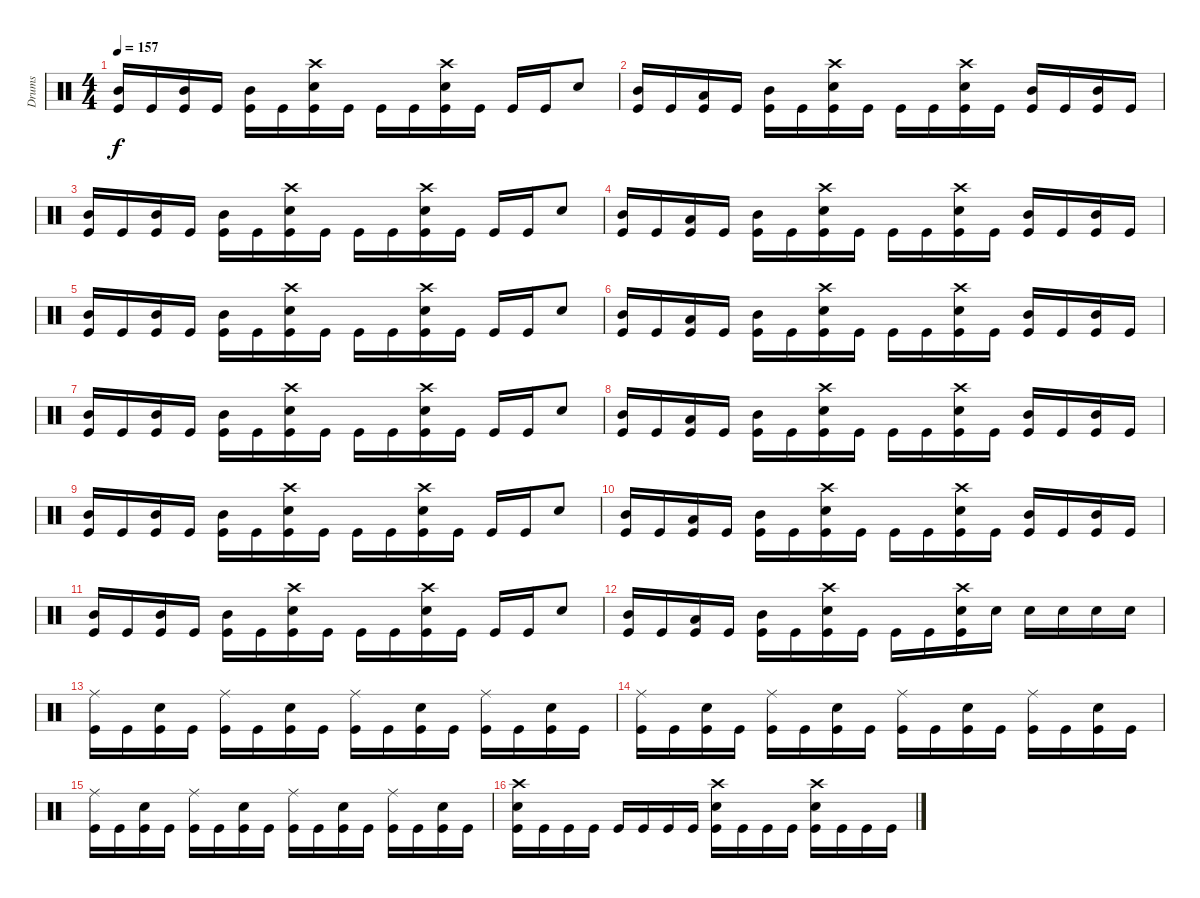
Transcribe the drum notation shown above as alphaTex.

\track ("Drums" "Drums") {instrument percussion}
\staff {score}
\articulation defaults
\ts (4 4)
\tempo 157
\clef neutral
\ks c
("Mid Tom (hit)" "Kick (hit)").16{dy f} "Kick (hit)".16 ("Mid Tom (hit)" "Kick (hit)").16 "Kick (hit)".16 ("Mid Tom (hit)" "Kick (hit)").16 "Kick (hit)".16 ("Snare (hit) 2" "Crash high (hit)" "Kick (hit)").16 "Kick (hit)".16 "Kick (hit)".16 "Kick (hit)".16 ("Snare (hit) 2" "Crash high (hit)" "Kick (hit)").16 "Kick (hit)".16 "Kick (hit)".16 "Kick (hit)".16 "Snare (hit) 2".8 |
("Mid Tom (hit)" "Kick (hit)").16 "Kick (hit)".16 ("Low Tom (hit)" "Kick (hit)").16 "Kick (hit)".16 ("Mid Tom (hit)" "Kick (hit)").16 "Kick (hit)".16 ("Snare (hit) 2" "Crash high (hit)" "Kick (hit)").16 "Kick (hit)".16 "Kick (hit)".16 "Kick (hit)".16 ("Snare (hit) 2" "Crash high (hit)" "Kick (hit)").16 "Kick (hit)".16 ("Mid Tom (hit)" "Kick (hit)").16 "Kick (hit)".16 ("Mid Tom (hit)" "Kick (hit)").16 "Kick (hit)".16 |
("Mid Tom (hit)" "Kick (hit)").16 "Kick (hit)".16 ("Mid Tom (hit)" "Kick (hit)").16 "Kick (hit)".16 ("Mid Tom (hit)" "Kick (hit)").16 "Kick (hit)".16 ("Snare (hit) 2" "Crash high (hit)" "Kick (hit)").16 "Kick (hit)".16 "Kick (hit)".16 "Kick (hit)".16 ("Snare (hit) 2" "Crash high (hit)" "Kick (hit)").16 "Kick (hit)".16 "Kick (hit)".16 "Kick (hit)".16 "Snare (hit) 2".8 |
("Mid Tom (hit)" "Kick (hit)").16 "Kick (hit)".16 ("Low Tom (hit)" "Kick (hit)").16 "Kick (hit)".16 ("Mid Tom (hit)" "Kick (hit)").16 "Kick (hit)".16 ("Snare (hit) 2" "Crash high (hit)" "Kick (hit)").16 "Kick (hit)".16 "Kick (hit)".16 "Kick (hit)".16 ("Snare (hit) 2" "Crash high (hit)" "Kick (hit)").16 "Kick (hit)".16 ("Mid Tom (hit)" "Kick (hit)").16 "Kick (hit)".16 ("Mid Tom (hit)" "Kick (hit)").16 "Kick (hit)".16 |
("Mid Tom (hit)" "Kick (hit)").16 "Kick (hit)".16 ("Mid Tom (hit)" "Kick (hit)").16 "Kick (hit)".16 ("Mid Tom (hit)" "Kick (hit)").16 "Kick (hit)".16 ("Snare (hit) 2" "Crash high (hit)" "Kick (hit)").16 "Kick (hit)".16 "Kick (hit)".16 "Kick (hit)".16 ("Snare (hit) 2" "Crash high (hit)" "Kick (hit)").16 "Kick (hit)".16 "Kick (hit)".16 "Kick (hit)".16 "Snare (hit) 2".8 |
("Mid Tom (hit)" "Kick (hit)").16 "Kick (hit)".16 ("Low Tom (hit)" "Kick (hit)").16 "Kick (hit)".16 ("Mid Tom (hit)" "Kick (hit)").16 "Kick (hit)".16 ("Snare (hit) 2" "Crash high (hit)" "Kick (hit)").16 "Kick (hit)".16 "Kick (hit)".16 "Kick (hit)".16 ("Snare (hit) 2" "Crash high (hit)" "Kick (hit)").16 "Kick (hit)".16 ("Mid Tom (hit)" "Kick (hit)").16 "Kick (hit)".16 ("Mid Tom (hit)" "Kick (hit)").16 "Kick (hit)".16 |
("Mid Tom (hit)" "Kick (hit)").16 "Kick (hit)".16 ("Mid Tom (hit)" "Kick (hit)").16 "Kick (hit)".16 ("Mid Tom (hit)" "Kick (hit)").16 "Kick (hit)".16 ("Snare (hit) 2" "Crash high (hit)" "Kick (hit)").16 "Kick (hit)".16 "Kick (hit)".16 "Kick (hit)".16 ("Snare (hit) 2" "Crash high (hit)" "Kick (hit)").16 "Kick (hit)".16 "Kick (hit)".16 "Kick (hit)".16 "Snare (hit) 2".8 |
("Mid Tom (hit)" "Kick (hit)").16 "Kick (hit)".16 ("Low Tom (hit)" "Kick (hit)").16 "Kick (hit)".16 ("Mid Tom (hit)" "Kick (hit)").16 "Kick (hit)".16 ("Snare (hit) 2" "Crash high (hit)" "Kick (hit)").16 "Kick (hit)".16 "Kick (hit)".16 "Kick (hit)".16 ("Snare (hit) 2" "Crash high (hit)" "Kick (hit)").16 "Kick (hit)".16 ("Mid Tom (hit)" "Kick (hit)").16 "Kick (hit)".16 ("Mid Tom (hit)" "Kick (hit)").16 "Kick (hit)".16 |
("Mid Tom (hit)" "Kick (hit)").16 "Kick (hit)".16 ("Mid Tom (hit)" "Kick (hit)").16 "Kick (hit)".16 ("Mid Tom (hit)" "Kick (hit)").16 "Kick (hit)".16 ("Snare (hit) 2" "Crash high (hit)" "Kick (hit)").16 "Kick (hit)".16 "Kick (hit)".16 "Kick (hit)".16 ("Snare (hit) 2" "Crash high (hit)" "Kick (hit)").16 "Kick (hit)".16 "Kick (hit)".16 "Kick (hit)".16 "Snare (hit) 2".8 |
("Mid Tom (hit)" "Kick (hit)").16 "Kick (hit)".16 ("Low Tom (hit)" "Kick (hit)").16 "Kick (hit)".16 ("Mid Tom (hit)" "Kick (hit)").16 "Kick (hit)".16 ("Snare (hit) 2" "Crash high (hit)" "Kick (hit)").16 "Kick (hit)".16 "Kick (hit)".16 "Kick (hit)".16 ("Snare (hit) 2" "Crash high (hit)" "Kick (hit)").16 "Kick (hit)".16 ("Mid Tom (hit)" "Kick (hit)").16 "Kick (hit)".16 ("Mid Tom (hit)" "Kick (hit)").16 "Kick (hit)".16 |
("Mid Tom (hit)" "Kick (hit)").16 "Kick (hit)".16 ("Mid Tom (hit)" "Kick (hit)").16 "Kick (hit)".16 ("Mid Tom (hit)" "Kick (hit)").16 "Kick (hit)".16 ("Snare (hit) 2" "Crash high (hit)" "Kick (hit)").16 "Kick (hit)".16 "Kick (hit)".16 "Kick (hit)".16 ("Snare (hit) 2" "Crash high (hit)" "Kick (hit)").16 "Kick (hit)".16 "Kick (hit)".16 "Kick (hit)".16 "Snare (hit) 2".8 |
("Mid Tom (hit)" "Kick (hit)").16 "Kick (hit)".16 ("Low Tom (hit)" "Kick (hit)").16 "Kick (hit)".16 ("Mid Tom (hit)" "Kick (hit)").16 "Kick (hit)".16 ("Snare (hit) 2" "Crash high (hit)" "Kick (hit)").16 "Kick (hit)".16 "Kick (hit)".16 "Kick (hit)".16 ("Snare (hit) 2" "Crash high (hit)" "Kick (hit)").16 "Snare (hit) 2".16 "Snare (hit) 2".16 "Snare (hit) 2".16 "Snare (hit) 2".16 "Snare (hit) 2".16 |
("Ride (middle)" "Kick (hit)").16 "Kick (hit)".16 ("Snare (hit) 2" "Kick (hit)").16 "Kick (hit)".16 ("Ride (middle)" "Kick (hit)").16 "Kick (hit)".16 ("Snare (hit) 2" "Kick (hit)").16 "Kick (hit)".16 ("Ride (middle)" "Kick (hit)").16 "Kick (hit)".16 ("Snare (hit) 2" "Kick (hit)").16 "Kick (hit)".16 ("Ride (middle)" "Kick (hit)").16 "Kick (hit)".16 ("Snare (hit) 2" "Kick (hit)").16 "Kick (hit)".16 |
("Ride (middle)" "Kick (hit)").16 "Kick (hit)".16 ("Snare (hit) 2" "Kick (hit)").16 "Kick (hit)".16 ("Ride (middle)" "Kick (hit)").16 "Kick (hit)".16 ("Snare (hit) 2" "Kick (hit)").16 "Kick (hit)".16 ("Ride (middle)" "Kick (hit)").16 "Kick (hit)".16 ("Snare (hit) 2" "Kick (hit)").16 "Kick (hit)".16 ("Ride (middle)" "Kick (hit)").16 "Kick (hit)".16 ("Snare (hit) 2" "Kick (hit)").16 "Kick (hit)".16 |
("Ride (middle)" "Kick (hit)").16 "Kick (hit)".16 ("Snare (hit) 2" "Kick (hit)").16 "Kick (hit)".16 ("Ride (middle)" "Kick (hit)").16 "Kick (hit)".16 ("Snare (hit) 2" "Kick (hit)").16 "Kick (hit)".16 ("Ride (middle)" "Kick (hit)").16 "Kick (hit)".16 ("Snare (hit) 2" "Kick (hit)").16 "Kick (hit)".16 ("Ride (middle)" "Kick (hit)").16 "Kick (hit)".16 ("Snare (hit) 2" "Kick (hit)").16 "Kick (hit)".16 |
("Snare (hit) 2" "Crash high (hit)" "Kick (hit)").16 "Kick (hit)".16 "Kick (hit)".16 "Kick (hit)".16 "Kick (hit)".16 "Kick (hit)".16 "Kick (hit)".16 "Kick (hit)".16 ("Snare (hit) 2" "Crash high (hit)" "Kick (hit)").16 "Kick (hit)".16 "Kick (hit)".16 "Kick (hit)".16 ("Snare (hit) 2" "Crash high (hit)" "Kick (hit)").16 "Kick (hit)".16 "Kick (hit)".16 "Kick (hit)".16
